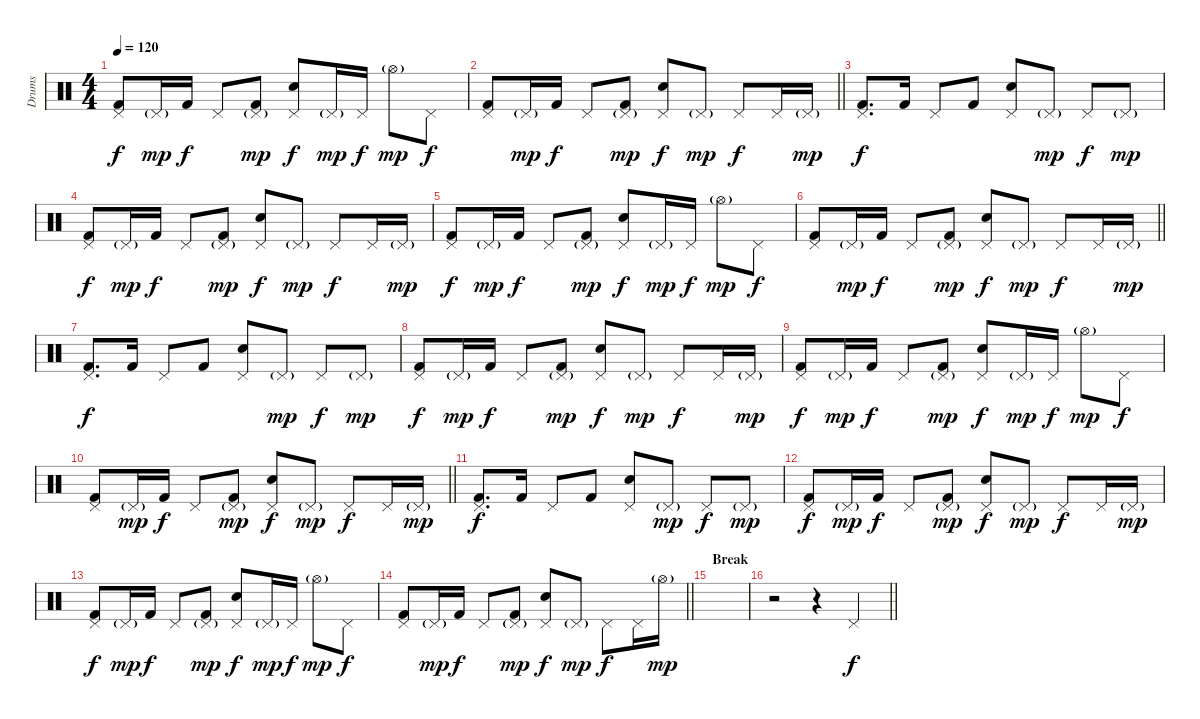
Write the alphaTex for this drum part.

\track ("Drums" "Drums") {instrument percussion}
\staff {score}
\articulation defaults
\ts (4 4)
\tempo 120
\clef neutral
\ks c
("Pedal Hi-Hat (hit)" "Kick (hit) 2").8{dy f} "Pedal Hi-Hat (hit)"{g}.16{dy mp} "Kick (hit) 2".16{dy f} "Pedal Hi-Hat (hit)".8 ("Pedal Hi-Hat (hit)"{g} "Kick (hit) 2").8{dy mp} ("Pedal Hi-Hat (hit)" "Electric Snare (hit)").8{dy f} "Pedal Hi-Hat (hit)"{g}.16{dy mp} "Pedal Hi-Hat (hit)".16{dy f} "Hi-Hat (open)"{g}.8{dy mp} "Pedal Hi-Hat (hit)".8{dy f} |
\barLineRight lightlight
("Pedal Hi-Hat (hit)" "Kick (hit) 2").8 "Pedal Hi-Hat (hit)"{g}.16{dy mp} "Kick (hit) 2".16{dy f} "Pedal Hi-Hat (hit)".8 ("Pedal Hi-Hat (hit)"{g} "Kick (hit) 2").8{dy mp} ("Pedal Hi-Hat (hit)" "Electric Snare (hit)").8{dy f} "Pedal Hi-Hat (hit)"{g}.8{dy mp} "Pedal Hi-Hat (hit)".8{dy f} "Pedal Hi-Hat (hit)".16 "Pedal Hi-Hat (hit)"{g}.16{dy mp} |
("Pedal Hi-Hat (hit)" "Kick (hit) 2").8{d dy f} "Kick (hit) 2".16 "Pedal Hi-Hat (hit)".8 "Kick (hit) 2".8 ("Pedal Hi-Hat (hit)" "Electric Snare (hit)").8 "Pedal Hi-Hat (hit)"{g}.8{dy mp} "Pedal Hi-Hat (hit)".8{dy f} "Pedal Hi-Hat (hit)"{g}.8{dy mp} |
("Pedal Hi-Hat (hit)" "Kick (hit) 2").8{dy f} "Pedal Hi-Hat (hit)"{g}.16{dy mp} "Kick (hit) 2".16{dy f} "Pedal Hi-Hat (hit)".8 ("Pedal Hi-Hat (hit)"{g} "Kick (hit) 2").8{dy mp} ("Pedal Hi-Hat (hit)" "Electric Snare (hit)").8{dy f} "Pedal Hi-Hat (hit)"{g}.8{dy mp} "Pedal Hi-Hat (hit)".8{dy f} "Pedal Hi-Hat (hit)".16 "Pedal Hi-Hat (hit)"{g}.16{dy mp} |
("Pedal Hi-Hat (hit)" "Kick (hit) 2").8{dy f} "Pedal Hi-Hat (hit)"{g}.16{dy mp} "Kick (hit) 2".16{dy f} "Pedal Hi-Hat (hit)".8 ("Pedal Hi-Hat (hit)"{g} "Kick (hit) 2").8{dy mp} ("Pedal Hi-Hat (hit)" "Electric Snare (hit)").8{dy f} "Pedal Hi-Hat (hit)"{g}.16{dy mp} "Pedal Hi-Hat (hit)".16{dy f} "Hi-Hat (open)"{g}.8{dy mp} "Pedal Hi-Hat (hit)".8{dy f} |
\barLineRight lightlight
("Pedal Hi-Hat (hit)" "Kick (hit) 2").8 "Pedal Hi-Hat (hit)"{g}.16{dy mp} "Kick (hit) 2".16{dy f} "Pedal Hi-Hat (hit)".8 ("Pedal Hi-Hat (hit)"{g} "Kick (hit) 2").8{dy mp} ("Pedal Hi-Hat (hit)" "Electric Snare (hit)").8{dy f} "Pedal Hi-Hat (hit)"{g}.8{dy mp} "Pedal Hi-Hat (hit)".8{dy f} "Pedal Hi-Hat (hit)".16 "Pedal Hi-Hat (hit)"{g}.16{dy mp} |
("Pedal Hi-Hat (hit)" "Kick (hit) 2").8{d dy f} "Kick (hit) 2".16 "Pedal Hi-Hat (hit)".8 "Kick (hit) 2".8 ("Pedal Hi-Hat (hit)" "Electric Snare (hit)").8 "Pedal Hi-Hat (hit)"{g}.8{dy mp} "Pedal Hi-Hat (hit)".8{dy f} "Pedal Hi-Hat (hit)"{g}.8{dy mp} |
("Pedal Hi-Hat (hit)" "Kick (hit) 2").8{dy f} "Pedal Hi-Hat (hit)"{g}.16{dy mp} "Kick (hit) 2".16{dy f} "Pedal Hi-Hat (hit)".8 ("Pedal Hi-Hat (hit)"{g} "Kick (hit) 2").8{dy mp} ("Pedal Hi-Hat (hit)" "Electric Snare (hit)").8{dy f} "Pedal Hi-Hat (hit)"{g}.8{dy mp} "Pedal Hi-Hat (hit)".8{dy f} "Pedal Hi-Hat (hit)".16 "Pedal Hi-Hat (hit)"{g}.16{dy mp} |
("Pedal Hi-Hat (hit)" "Kick (hit) 2").8{dy f} "Pedal Hi-Hat (hit)"{g}.16{dy mp} "Kick (hit) 2".16{dy f} "Pedal Hi-Hat (hit)".8 ("Pedal Hi-Hat (hit)"{g} "Kick (hit) 2").8{dy mp} ("Pedal Hi-Hat (hit)" "Electric Snare (hit)").8{dy f} "Pedal Hi-Hat (hit)"{g}.16{dy mp} "Pedal Hi-Hat (hit)".16{dy f} "Hi-Hat (open)"{g}.8{dy mp} "Pedal Hi-Hat (hit)".8{dy f} |
\barLineRight lightlight
("Pedal Hi-Hat (hit)" "Kick (hit) 2").8 "Pedal Hi-Hat (hit)"{g}.16{dy mp} "Kick (hit) 2".16{dy f} "Pedal Hi-Hat (hit)".8 ("Pedal Hi-Hat (hit)"{g} "Kick (hit) 2").8{dy mp} ("Pedal Hi-Hat (hit)" "Electric Snare (hit)").8{dy f} "Pedal Hi-Hat (hit)"{g}.8{dy mp} "Pedal Hi-Hat (hit)".8{dy f} "Pedal Hi-Hat (hit)".16 "Pedal Hi-Hat (hit)"{g}.16{dy mp} |
("Pedal Hi-Hat (hit)" "Kick (hit) 2").8{d dy f} "Kick (hit) 2".16 "Pedal Hi-Hat (hit)".8 "Kick (hit) 2".8 ("Pedal Hi-Hat (hit)" "Electric Snare (hit)").8 "Pedal Hi-Hat (hit)"{g}.8{dy mp} "Pedal Hi-Hat (hit)".8{dy f} "Pedal Hi-Hat (hit)"{g}.8{dy mp} |
("Pedal Hi-Hat (hit)" "Kick (hit) 2").8{dy f} "Pedal Hi-Hat (hit)"{g}.16{dy mp} "Kick (hit) 2".16{dy f} "Pedal Hi-Hat (hit)".8 ("Pedal Hi-Hat (hit)"{g} "Kick (hit) 2").8{dy mp} ("Pedal Hi-Hat (hit)" "Electric Snare (hit)").8{dy f} "Pedal Hi-Hat (hit)"{g}.8{dy mp} "Pedal Hi-Hat (hit)".8{dy f} "Pedal Hi-Hat (hit)".16 "Pedal Hi-Hat (hit)"{g}.16{dy mp} |
("Pedal Hi-Hat (hit)" "Kick (hit) 2").8{dy f} "Pedal Hi-Hat (hit)"{g}.16{dy mp} "Kick (hit) 2".16{dy f} "Pedal Hi-Hat (hit)".8 ("Pedal Hi-Hat (hit)"{g} "Kick (hit) 2").8{dy mp} ("Pedal Hi-Hat (hit)" "Electric Snare (hit)").8{dy f} "Pedal Hi-Hat (hit)"{g}.16{dy mp} "Pedal Hi-Hat (hit)".16{dy f} "Hi-Hat (open)"{g}.8{dy mp} "Pedal Hi-Hat (hit)".8{dy f} |
\barLineRight lightlight
("Pedal Hi-Hat (hit)" "Kick (hit) 2").8 "Pedal Hi-Hat (hit)"{g}.16{dy mp} "Kick (hit) 2".16{dy f} "Pedal Hi-Hat (hit)".8 ("Pedal Hi-Hat (hit)"{g} "Kick (hit) 2").8{dy mp} ("Pedal Hi-Hat (hit)" "Electric Snare (hit)").8{dy f} "Pedal Hi-Hat (hit)"{g}.8{dy mp} "Pedal Hi-Hat (hit)".8{dy f} "Pedal Hi-Hat (hit)".16 "Hi-Hat (open)"{g}.16{dy mp} |
\section ("" "Break")
|
\barLineRight lightlight
r.2 r.4 "Pedal Hi-Hat (hit)".4{dy f}
